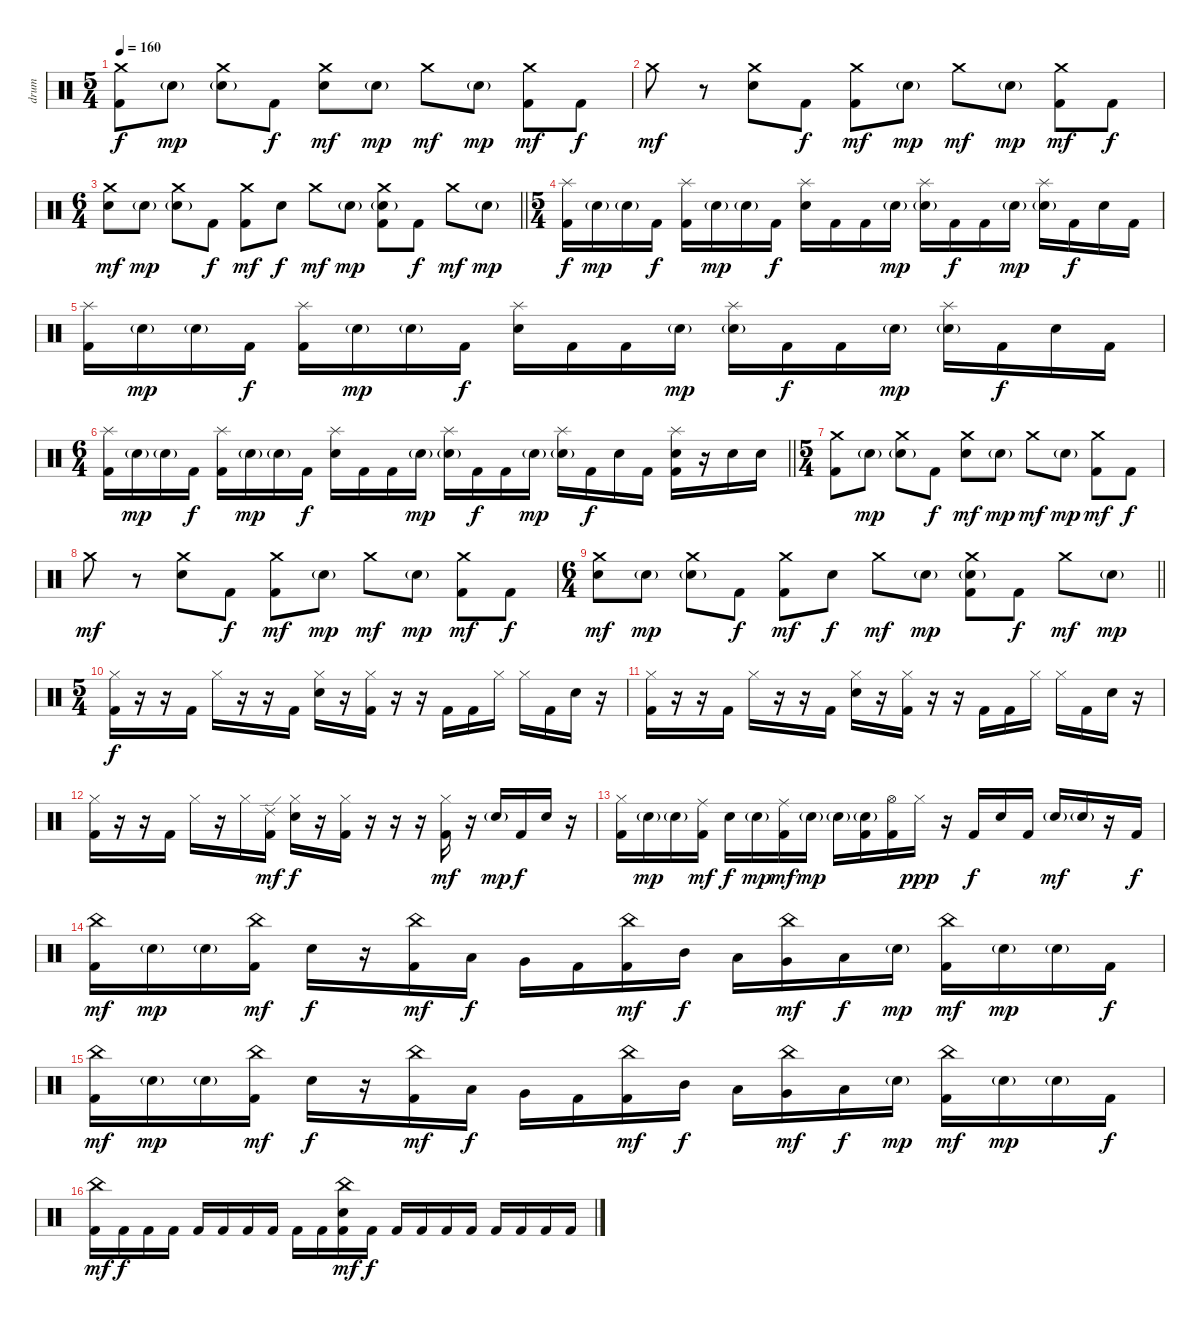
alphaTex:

\track ("drum" "drum") {instrument percussion}
\staff {score}
\articulation defaults
\ts (5 4)
\section ("" "")
\tempo 160
\clef neutral
\ks c
("Crash medium (hit)" "Kick (hit) 2").8{dy f} "Electric Snare (hit)"{g}.8{dy mp} ("Crash medium (hit)" "Electric Snare (hit)"{g}).8 "Kick (hit) 2".8{dy f} ("Crash medium (hit)" "Electric Snare (hit)").8{dy mf} "Electric Snare (hit)"{g}.8{dy mp} "Crash medium (hit)".8{dy mf} "Electric Snare (hit)"{g}.8{dy mp} ("Crash medium (hit)" "Kick (hit) 2").8{dy mf} "Kick (hit) 2".8{dy f} |
"Crash medium (hit)".8{dy mf} r.8 ("Crash medium (hit)" "Electric Snare (hit)").8 "Kick (hit) 2".8{dy f} ("Crash medium (hit)" "Kick (hit) 2").8{dy mf} "Electric Snare (hit)"{g}.8{dy mp} "Crash medium (hit)".8{dy mf} "Electric Snare (hit)"{g}.8{dy mp} ("Crash medium (hit)" "Kick (hit) 2").8{dy mf} "Kick (hit) 2".8{dy f} |
\ts (6 4)
\barLineRight lightlight
("Crash medium (hit)" "Electric Snare (hit)").8{dy mf} "Electric Snare (hit)"{g}.8{dy mp} ("Crash medium (hit)" "Electric Snare (hit)"{g}).8 "Kick (hit) 2".8{dy f} ("Crash medium (hit)" "Kick (hit) 2").8{dy mf} "Electric Snare (hit)".8{dy f} "Crash medium (hit)".8{dy mf} "Electric Snare (hit)"{g}.8{dy mp} ("Crash medium (hit)" "Electric Snare (hit)"{g} "Kick (hit) 2").8 "Kick (hit) 2".8{dy f} "Crash medium (hit)".8{dy mf} "Electric Snare (hit)"{g}.8{dy mp} |
\ts (5 4)
\section ("" "")
("Splash (hit)" "Kick (hit) 2").16{dy f} "Electric Snare (hit)"{g}.16{dy mp} "Electric Snare (hit)"{g}.16 "Kick (hit) 2".16{dy f} ("Splash (hit)" "Kick (hit) 2").16 "Electric Snare (hit)"{g}.16{dy mp} "Electric Snare (hit)"{g}.16 "Kick (hit) 2".16{dy f} ("Splash (hit)" "Electric Snare (hit)").16 "Kick (hit) 2".16 "Kick (hit) 2".16 "Electric Snare (hit)"{g}.16{dy mp} ("Splash (hit)" "Electric Snare (hit)"{g}).16 "Kick (hit) 2".16{dy f} "Kick (hit) 2".16 "Electric Snare (hit)"{g}.16{dy mp} ("Splash (hit)" "Electric Snare (hit)"{g}).16 "Kick (hit) 2".16{dy f} "Electric Snare (hit)".16 "Kick (hit) 2".16 |
("Splash (hit)" "Kick (hit) 2").16 "Electric Snare (hit)"{g}.16{dy mp} "Electric Snare (hit)"{g}.16 "Kick (hit) 2".16{dy f} ("Splash (hit)" "Kick (hit) 2").16 "Electric Snare (hit)"{g}.16{dy mp} "Electric Snare (hit)"{g}.16 "Kick (hit) 2".16{dy f} ("Splash (hit)" "Electric Snare (hit)").16 "Kick (hit) 2".16 "Kick (hit) 2".16 "Electric Snare (hit)"{g}.16{dy mp} ("Splash (hit)" "Electric Snare (hit)"{g}).16 "Kick (hit) 2".16{dy f} "Kick (hit) 2".16 "Electric Snare (hit)"{g}.16{dy mp} ("Splash (hit)" "Electric Snare (hit)"{g}).16 "Kick (hit) 2".16{dy f} "Electric Snare (hit)".16 "Kick (hit) 2".16 |
\ts (6 4)
\barLineRight lightlight
("Splash (hit)" "Kick (hit) 2").16 "Electric Snare (hit)"{g}.16{dy mp} "Electric Snare (hit)"{g}.16 "Kick (hit) 2".16{dy f} ("Splash (hit)" "Kick (hit) 2").16 "Electric Snare (hit)"{g}.16{dy mp} "Electric Snare (hit)"{g}.16 "Kick (hit) 2".16{dy f} ("Splash (hit)" "Electric Snare (hit)").16 "Kick (hit) 2".16 "Kick (hit) 2".16 "Electric Snare (hit)"{g}.16{dy mp} ("Splash (hit)" "Electric Snare (hit)"{g}).16 "Kick (hit) 2".16{dy f} "Kick (hit) 2".16 "Electric Snare (hit)"{g}.16{dy mp} ("Splash (hit)" "Electric Snare (hit)"{g}).16 "Kick (hit) 2".16{dy f} "Electric Snare (hit)".16 "Kick (hit) 2".16 ("Splash (hit)" "Electric Snare (hit)" "Kick (hit) 2").16 r.16 "Electric Snare (hit)".16 "Electric Snare (hit)".16 |
\ts (5 4)
\section ("" "")
("Crash medium (hit)" "Kick (hit) 2").8 "Electric Snare (hit)"{g}.8{dy mp} ("Crash medium (hit)" "Electric Snare (hit)"{g}).8 "Kick (hit) 2".8{dy f} ("Crash medium (hit)" "Electric Snare (hit)").8{dy mf} "Electric Snare (hit)"{g}.8{dy mp} "Crash medium (hit)".8{dy mf} "Electric Snare (hit)"{g}.8{dy mp} ("Crash medium (hit)" "Kick (hit) 2").8{dy mf} "Kick (hit) 2".8{dy f} |
"Crash medium (hit)".8{dy mf} r.8 ("Crash medium (hit)" "Electric Snare (hit)").8 "Kick (hit) 2".8{dy f} ("Crash medium (hit)" "Kick (hit) 2").8{dy mf} "Electric Snare (hit)"{g}.8{dy mp} "Crash medium (hit)".8{dy mf} "Electric Snare (hit)"{g}.8{dy mp} ("Crash medium (hit)" "Kick (hit) 2").8{dy mf} "Kick (hit) 2".8{dy f} |
\ts (6 4)
\barLineRight lightlight
("Crash medium (hit)" "Electric Snare (hit)").8{dy mf} "Electric Snare (hit)"{g}.8{dy mp} ("Crash medium (hit)" "Electric Snare (hit)"{g}).8 "Kick (hit) 2".8{dy f} ("Crash medium (hit)" "Kick (hit) 2").8{dy mf} "Electric Snare (hit)".8{dy f} "Crash medium (hit)".8{dy mf} "Electric Snare (hit)"{g}.8{dy mp} ("Crash medium (hit)" "Electric Snare (hit)"{g} "Kick (hit) 2").8 "Kick (hit) 2".8{dy f} "Crash medium (hit)".8{dy mf} "Electric Snare (hit)"{g}.8{dy mp} |
\ts (5 4)
\section ("" "")
("Hi-Hat (closed)" "Kick (hit) 2").16{dy f} r.16 r.16 "Kick (hit) 2".16 "Hi-Hat (closed)".16 r.16 r.16 "Kick (hit) 2".16 ("Hi-Hat (closed)" "Electric Snare (hit)").16 r.16 ("Hi-Hat (closed)" "Kick (hit) 2").16 r.16 r.16 "Kick (hit) 2".16 "Kick (hit) 2".16 "Hi-Hat (closed)".16 "Hi-Hat (closed)".16 "Kick (hit) 2".16 "Electric Snare (hit)".16 r.16 |
("Hi-Hat (closed)" "Kick (hit) 2").16 r.16 r.16 "Kick (hit) 2".16 "Hi-Hat (closed)".16 r.16 r.16 "Kick (hit) 2".16 ("Hi-Hat (closed)" "Electric Snare (hit)").16 r.16 ("Hi-Hat (closed)" "Kick (hit) 2").16 r.16 r.16 "Kick (hit) 2".16 "Kick (hit) 2".16 "Hi-Hat (closed)".16 "Hi-Hat (closed)".16 "Kick (hit) 2".16 "Electric Snare (hit)".16 r.16 |
("Hi-Hat (closed)" "Kick (hit) 2").16 r.16 r.16 "Kick (hit) 2".16 "Hi-Hat (closed)".16 r.16 "Hi-Hat (closed)".16 ("Ride (edge) 2" "Kick (hit) 2").16{dy mf} ("Hi-Hat (closed)" "Electric Snare (hit)").16{dy f} r.16 ("Hi-Hat (closed)" "Kick (hit) 2").16 r.16 r.16 r.16 ("Hi-Hat (closed)" "Kick (hit) 2").16{dy mf} r.16 "Electric Snare (hit)"{g}.16{dy mp} "Kick (hit) 2".16{dy f} "Electric Snare (hit)".16 r.16 |
("Hi-Hat (closed)" "Kick (hit) 2").16 "Electric Snare (hit)"{g}.16{dy mp} "Electric Snare (hit)"{g}.16 ("Ride (middle)" "Kick (hit) 2").16{dy mf} "Electric Snare (hit)".16{dy f} "Electric Snare (hit)"{g}.16{dy mp} ("Ride (middle)" "Kick (hit) 2").16{dy mf} "Electric Snare (hit)"{g}.16{dy mp} "Electric Snare (hit)"{g}.16 ("Electric Snare (hit)"{g} "Kick (hit) 2").16 ("Hi-Hat (open)" "Kick (hit) 2").16 "Hi-Hat (closed)".16{dy ppp} r.16 "Kick (hit) 2".16{dy f} "Electric Snare (hit)".16 "Kick (hit) 2".16 "Electric Snare (hit)"{g}.16{dy mf} "Electric Snare (hit)"{g}.16 r.16 "Kick (hit) 2".16{dy f} |
("China (hit)" "Kick (hit) 2").16{dy mf} "Electric Snare (hit)"{g}.16{dy mp} "Electric Snare (hit)"{g}.16 ("China (hit)" "Kick (hit) 2").16{dy mf} "Electric Snare (hit)".16{dy f} r.16 ("China (hit)" "Kick (hit) 2").16{dy mf} "Low Tom (hit)".16{dy f} "Very Low Tom (hit)".16 "Kick (hit) 2".16 ("China (hit)" "Kick (hit) 2").16{dy mf} "Mid Tom (hit)".16{dy f} "Low Tom (hit)".16 ("China (hit)" "Very Low Tom (hit)").16{dy mf} "Low Floor Tom (hit)".16{dy f} "Electric Snare (hit)"{g}.16{dy mp} ("China (hit)" "Kick (hit) 2").16{dy mf} "Electric Snare (hit)"{g}.16{dy mp} "Electric Snare (hit)"{g}.16 "Kick (hit) 2".16{dy f} |
("China (hit)" "Kick (hit) 2").16{dy mf} "Electric Snare (hit)"{g}.16{dy mp} "Electric Snare (hit)"{g}.16 ("China (hit)" "Kick (hit) 2").16{dy mf} "Electric Snare (hit)".16{dy f} r.16 ("China (hit)" "Kick (hit) 2").16{dy mf} "Low Tom (hit)".16{dy f} "Very Low Tom (hit)".16 "Kick (hit) 2".16 ("China (hit)" "Kick (hit) 2").16{dy mf} "Mid Tom (hit)".16{dy f} "Low Tom (hit)".16 ("China (hit)" "Very Low Tom (hit)").16{dy mf} "Low Floor Tom (hit)".16{dy f} "Electric Snare (hit)"{g}.16{dy mp} ("China (hit)" "Kick (hit) 2").16{dy mf} "Electric Snare (hit)"{g}.16{dy mp} "Electric Snare (hit)"{g}.16 "Kick (hit) 2".16{dy f} |
("China (hit)" "Kick (hit) 2").16{dy mf} "Kick (hit) 2".16{dy f} "Kick (hit) 2".16 "Kick (hit) 2".16 "Kick (hit) 2".16 "Kick (hit) 2".16 "Kick (hit) 2".16 "Kick (hit) 2".16 "Kick (hit) 2".16 "Kick (hit) 2".16 ("China (hit)" "Electric Snare (hit)" "Kick (hit) 2").16{dy mf} "Kick (hit) 2".16{dy f} "Kick (hit) 2".16 "Kick (hit) 2".16 "Kick (hit) 2".16 "Kick (hit) 2".16 "Kick (hit) 2".16 "Kick (hit) 2".16 "Kick (hit) 2".16 "Kick (hit) 2".16
